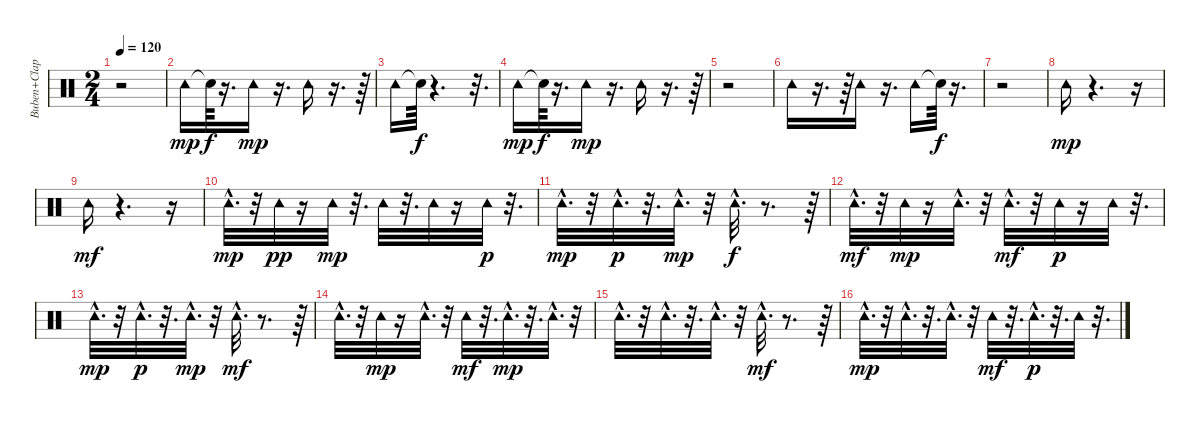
\track ("Buben+Clap" "Buben+Clap") {instrument percussion}
\staff {score}
\articulation defaults
\ts (2 4)
\tempo 120
\clef neutral
\ks c
r.2{dy f} |
"Tambourine (hit)".16{dy mp} "Snare (hit)"{t}.64{dy f} r.16{d} "Tambourine (hit)".16{dy mp} r.16{d} "Tambourine (hit)".16 r.16{d} r.64 |
"Tambourine (hit)".16 "Snare (hit)"{t}.64{dy f} r.4{d} r.32{d} |
"Tambourine (hit)".16{dy mp} "Snare (hit)"{t}.64{dy f} r.16{d} "Tambourine (hit)".16{dy mp} r.16{d} "Tambourine (hit)".16 r.16{d} r.64 |
r.2 |
"Tambourine (hit)".16 r.16{d} r.64 "Tambourine (hit)".16 r.16{d} "Tambourine (hit)".16 "Snare (hit)"{t}.64{dy f} r.16{d} |
r.2 |
"Tambourine (hit)".16{dy mp} r.4{d} r.16 |
"Tambourine (hit)".16{dy mf} r.4{d} r.16 |
"Tambourine (hit)"{hac}.32{d dy mp} r.32 "Tambourine (hit)".32{dy pp} r.16 "Tambourine (hit)".32{dy mp} r.32{d} "Tambourine (hit)".32 r.32{d} "Tambourine (hit)".32 r.16 "Tambourine (hit)".32{dy p} r.32{d} |
"Tambourine (hit)"{hac}.32{d dy mp} r.32 "Tambourine (hit)"{hac}.32{d dy p} r.32{d} "Tambourine (hit)"{hac}.32{d dy mp} r.32 "Tambourine (hit)"{hac}.32{d dy f} r.8{d} r.64 |
"Tambourine (hit)"{hac}.32{d dy mf} r.32 "Tambourine (hit)".32{dy mp} r.16 "Tambourine (hit)"{hac}.32{d} r.32 "Tambourine (hit)"{hac}.32{d dy mf} r.32 "Tambourine (hit)".32{dy p} r.16 "Tambourine (hit)".32 r.32{d} |
"Tambourine (hit)"{hac}.32{d dy mp} r.32 "Tambourine (hit)"{hac}.32{d dy p} r.32{d} "Tambourine (hit)"{hac}.32{d dy mp} r.32 "Tambourine (hit)"{hac}.32{d dy mf} r.8{d} r.64 |
"Tambourine (hit)"{hac}.32{d} r.32 "Tambourine (hit)".32{dy mp} r.16 "Tambourine (hit)"{hac}.32{d} r.32 "Tambourine (hit)".32{dy mf} r.32{d} "Tambourine (hit)"{hac}.32{d dy mp} r.32{d} "Tambourine (hit)"{hac}.32{d} r.32 |
"Tambourine (hit)"{hac}.32{d} r.32 "Tambourine (hit)"{hac}.32{d} r.32{d} "Tambourine (hit)"{hac}.32{d} r.32 "Tambourine (hit)"{hac}.32{d dy mf} r.8{d} r.64 |
"Tambourine (hit)"{hac}.32{d dy mp} r.32 "Tambourine (hit)"{hac}.32{d} r.32{d} "Tambourine (hit)"{hac}.32{d} r.32 "Tambourine (hit)".32{dy mf} r.32{d} "Tambourine (hit)"{hac}.32{d dy p} r.32{d} "Tambourine (hit)".32 r.32{d}
